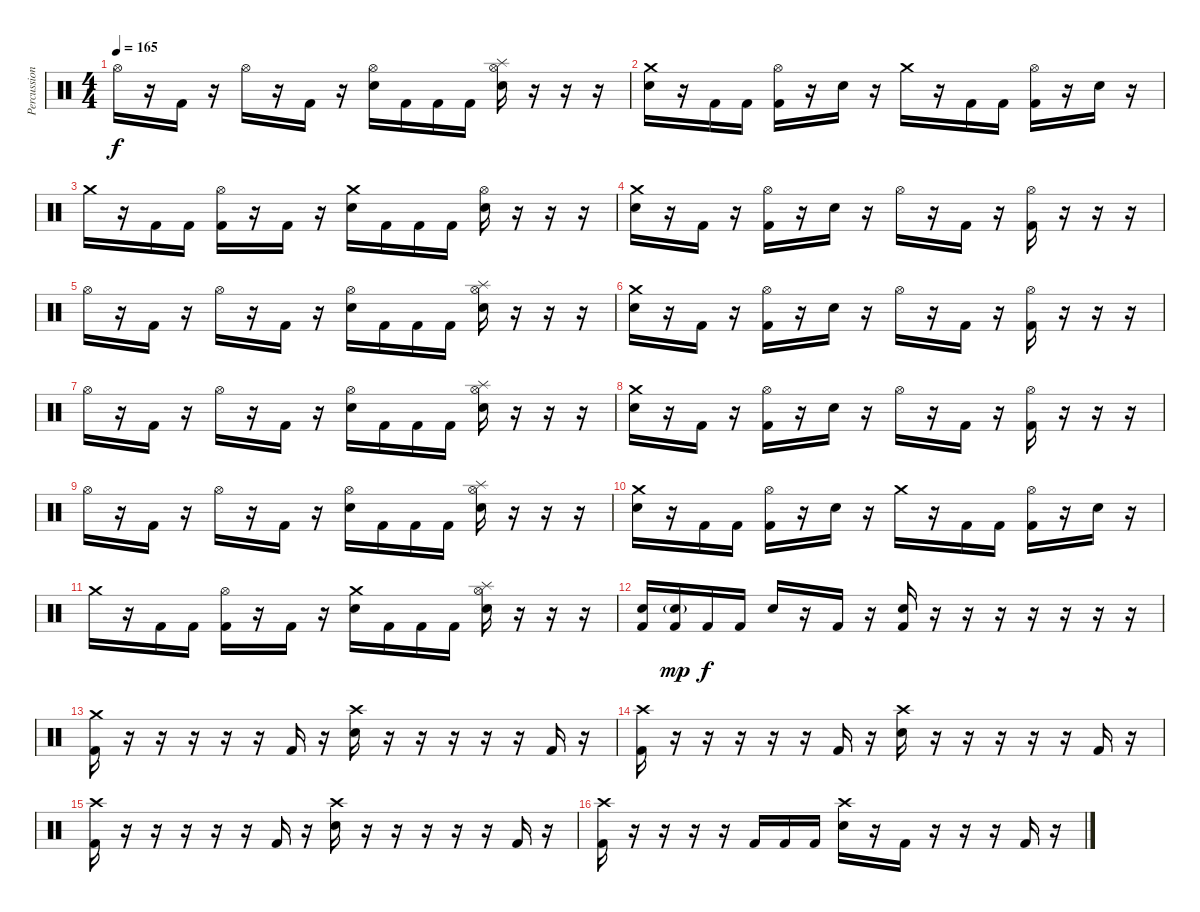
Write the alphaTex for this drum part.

\track ("Percussion" "Percussion") {instrument percussion}
\staff {score}
\articulation defaults
\ts (4 4)
\tempo 165
\clef neutral
\ks c "Hi-Hat (open)".16{dy f}
r.16 "Kick (hit) 2".16 r.16 "Hi-Hat (open)".16 r.16 "Kick (hit) 2".16 r.16 ("Hi-Hat (open)" "Electric Snare (hit)").16 "Kick (hit) 2".16 "Kick (hit) 2".16 "Kick (hit) 2".16 ("Hi-Hat (open)" "Splash (hit)" "Electric Snare (hit)").16 r.16 r.16 r.16 |
("Crash medium (hit)" "Electric Snare (hit)").16 r.16 "Kick (hit) 2".16 "Kick (hit) 2".16 ("Hi-Hat (open)" "Kick (hit) 2").16 r.16 "Electric Snare (hit)".16 r.16 "Crash medium (hit)".16 r.16 "Kick (hit) 2".16 "Kick (hit) 2".16 ("Hi-Hat (open)" "Kick (hit) 2").16 r.16 "Electric Snare (hit)".16 r.16 |
"Crash medium (hit)".16 r.16 "Kick (hit) 2".16 "Kick (hit) 2".16 ("Hi-Hat (open)" "Kick (hit) 2").16 r.16 "Kick (hit) 2".16 r.16 ("Crash medium (hit)" "Electric Snare (hit)").16 "Kick (hit) 2".16 "Kick (hit) 2".16 "Kick (hit) 2".16 ("Hi-Hat (open)" "Electric Snare (hit)").16 r.16 r.16 r.16 |
("Crash medium (hit)" "Electric Snare (hit)").16 r.16 "Kick (hit) 2".16 r.16 ("Hi-Hat (open)" "Kick (hit) 2").16 r.16 "Electric Snare (hit)".16 r.16 "Hi-Hat (open)".16 r.16 "Kick (hit) 2".16 r.16 ("Hi-Hat (open)" "Kick (hit) 2").16 r.16 r.16 r.16 |
"Hi-Hat (open)".16 r.16 "Kick (hit) 2".16 r.16 "Hi-Hat (open)".16 r.16 "Kick (hit) 2".16 r.16 ("Hi-Hat (open)" "Electric Snare (hit)").16 "Kick (hit) 2".16 "Kick (hit) 2".16 "Kick (hit) 2".16 ("Hi-Hat (open)" "Splash (hit)" "Electric Snare (hit)").16 r.16 r.16 r.16 |
("Crash medium (hit)" "Electric Snare (hit)").16 r.16 "Kick (hit) 2".16 r.16 ("Hi-Hat (open)" "Kick (hit) 2").16 r.16 "Electric Snare (hit)".16 r.16 "Hi-Hat (open)".16 r.16 "Kick (hit) 2".16 r.16 ("Hi-Hat (open)" "Kick (hit) 2").16 r.16 r.16 r.16 |
"Hi-Hat (open)".16 r.16 "Kick (hit) 2".16 r.16 "Hi-Hat (open)".16 r.16 "Kick (hit) 2".16 r.16 ("Hi-Hat (open)" "Electric Snare (hit)").16 "Kick (hit) 2".16 "Kick (hit) 2".16 "Kick (hit) 2".16 ("Hi-Hat (open)" "Splash (hit)" "Electric Snare (hit)").16 r.16 r.16 r.16 |
("Crash medium (hit)" "Electric Snare (hit)").16 r.16 "Kick (hit) 2".16 r.16 ("Hi-Hat (open)" "Kick (hit) 2").16 r.16 "Electric Snare (hit)".16 r.16 "Hi-Hat (open)".16 r.16 "Kick (hit) 2".16 r.16 ("Hi-Hat (open)" "Kick (hit) 2").16 r.16 r.16 r.16 |
"Hi-Hat (open)".16 r.16 "Kick (hit) 2".16 r.16 "Hi-Hat (open)".16 r.16 "Kick (hit) 2".16 r.16 ("Hi-Hat (open)" "Electric Snare (hit)").16 "Kick (hit) 2".16 "Kick (hit) 2".16 "Kick (hit) 2".16 ("Hi-Hat (open)" "Splash (hit)" "Electric Snare (hit)").16 r.16 r.16 r.16 |
("Crash medium (hit)" "Electric Snare (hit)").16 r.16 "Kick (hit) 2".16 "Kick (hit) 2".16 ("Hi-Hat (open)" "Kick (hit) 2").16 r.16 "Electric Snare (hit)".16 r.16 "Crash medium (hit)".16 r.16 "Kick (hit) 2".16 "Kick (hit) 2".16 ("Hi-Hat (open)" "Kick (hit) 2").16 r.16 "Electric Snare (hit)".16 r.16 |
"Crash medium (hit)".16 r.16 "Kick (hit) 2".16 "Kick (hit) 2".16 ("Hi-Hat (open)" "Kick (hit) 2").16 r.16 "Kick (hit) 2".16 r.16 ("Crash medium (hit)" "Electric Snare (hit)").16 "Kick (hit) 2".16 "Kick (hit) 2".16 "Kick (hit) 2".16 ("Hi-Hat (open)" "Splash (hit)" "Electric Snare (hit)").16 r.16 r.16 r.16 |
("Electric Snare (hit)" "Kick (hit) 2").16 ("Electric Snare (hit)"{g} "Kick (hit) 2").16{dy mp} "Kick (hit) 2".16{dy f} "Kick (hit) 2".16 "Electric Snare (hit)".16 r.16 "Kick (hit) 2".16 r.16 ("Electric Snare (hit)" "Kick (hit) 2").16 r.16 r.16 r.16 r.16 r.16 r.16 r.16 |
("Crash medium (hit)" "Kick (hit) 2").16 r.16 r.16 r.16 r.16 r.16 "Kick (hit) 2".16 r.16 ("Crash high (hit)" "Electric Snare (hit)").16 r.16 r.16 r.16 r.16 r.16 "Kick (hit) 2".16 r.16 |
("Crash high (hit)" "Kick (hit) 2").16 r.16 r.16 r.16 r.16 r.16 "Kick (hit) 2".16 r.16 ("Crash high (hit)" "Electric Snare (hit)").16 r.16 r.16 r.16 r.16 r.16 "Kick (hit) 2".16 r.16 |
("Crash high (hit)" "Kick (hit) 2").16 r.16 r.16 r.16 r.16 r.16 "Kick (hit) 2".16 r.16 ("Crash high (hit)" "Electric Snare (hit)").16 r.16 r.16 r.16 r.16 r.16 "Kick (hit) 2".16 r.16 |
("Crash high (hit)" "Kick (hit) 2").16 r.16 r.16 r.16 r.16 "Kick (hit) 2".16 "Kick (hit) 2".16 "Kick (hit) 2".16 ("Crash high (hit)" "Electric Snare (hit)").16 r.16 "Kick (hit) 2".16 r.16 r.16 r.16 "Kick (hit) 2".16 r.16
